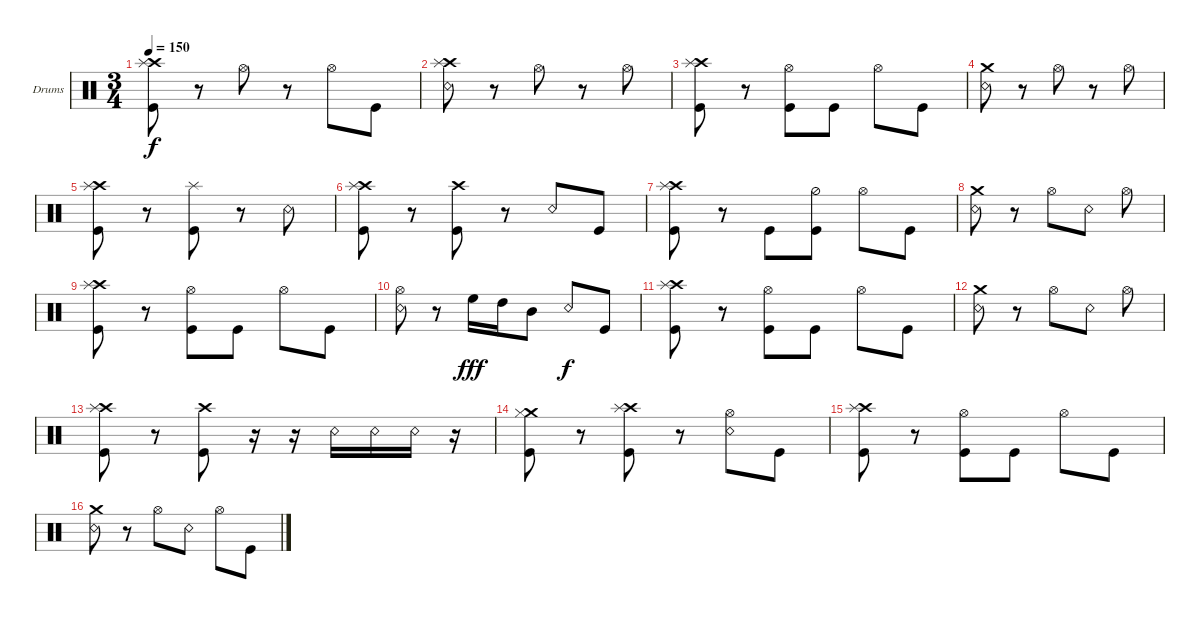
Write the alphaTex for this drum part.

\defaultSystemsLayout 4
\bracketExtendMode groupsimilarinstruments
\firstSystemTrackNameOrientation horizontal
\otherSystemsTrackNameOrientation horizontal
\track ("Scott" "Drums") {instrument percussion}
\staff {score}
\articulation defaults
\ts (3 4)
\tempo 150
\clef neutral
\scale
0.333333
\ks c
("Kick (hit)" "Crash high (hit)" "Splash (hit)").8{dy f} r.8 "Hi-Hat (open)".8 r.8 "Hi-Hat (open)".8 "Kick (hit)".8 |
\scale
0.333333 ("Snare (rim shot)" "Crash high (hit)" "Splash (hit)").8 r.8 "Hi-Hat (open)".8 r.8 "Hi-Hat (open)".8 |
\scale
0.333333 ("Kick (hit)" "Crash high (hit)" "Splash (hit)").8 r.8 ("Kick (hit)" "Hi-Hat (open)").8 "Kick (hit)".8 "Hi-Hat (open)".8 "Kick (hit)".8 |
\scale
0.333333 ("Crash medium (hit)" "Snare (rim shot)").8 r.8 "Hi-Hat (open)".8 r.8 "Hi-Hat (open)".8 |
\scale
0.333333 ("Kick (hit)" "Crash high (hit)" "Splash (hit)").8 r.8 ("Kick (hit)" "Splash (hit)").8 r.8 "Snare (rim shot)".8 |
\scale
0.333333 ("Kick (hit)" "Crash high (hit)" "Splash (hit)").8 r.8 ("Kick (hit)" "Crash high (hit)").8 r.8 "Snare (rim shot)".8 "Kick (hit)".8 |
\scale
0.333333 ("Kick (hit)" "Crash high (hit)" "Splash (hit)").8 r.8 "Kick (hit)".8 ("Hi-Hat (half)" "Kick (hit)").8 "Hi-Hat (open)".8 "Kick (hit)".8 |
\scale
0.333333 ("Crash medium (hit)" "Snare (rim shot)").8 r.8 "Hi-Hat (open)".8 "Snare (rim shot)".8 "Hi-Hat (open)".8 |
\scale
0.333333 ("Kick (hit)" "Crash high (hit)" "Splash (hit)").8 r.8 ("Kick (hit)" "Hi-Hat (open)").8 "Kick (hit)".8 "Hi-Hat (open)".8 "Kick (hit)".8 |
\scale
0.333333 ("Snare (rim shot)" "Hi-Hat (open)").8 r.8 "High Floor Tom (hit)".16{dy fff} "High Tom (hit)".16 "Mid Tom (hit)".8 "Snare (rim shot)".8{dy f} "Kick (hit)".8 |
\scale
0.333333 ("Kick (hit)" "Crash high (hit)" "Splash (hit)").8 r.8 ("Kick (hit)" "Hi-Hat (open)").8 "Kick (hit)".8 "Hi-Hat (open)".8 "Kick (hit)".8 |
\scale
0.333333 ("Crash medium (hit)" "Snare (rim shot)").8 r.8 "Hi-Hat (open)".8 "Snare (rim shot)".8 "Hi-Hat (open)".8 |
\scale
0.333333 ("Kick (hit)" "Crash high (hit)" "Splash (hit)").8 r.8 ("Kick (hit)" "Crash high (hit)").8 r.16 r.16 "Snare (rim shot)".16 "Snare (rim shot)".16 "Snare (rim shot)".16 r.16 |
\scale
0.333333 ("Kick (hit)" "Crash medium (hit)" "Hi-Hat (closed)").8 r.8 ("Crash high (hit)" "Splash (hit)" "Kick (hit)").8 r.8 ("Hi-Hat (open)" "Snare (rim shot)").8 "Kick (hit)".8 |
\scale
0.333333 ("Kick (hit)" "Crash high (hit)" "Splash (hit)").8 r.8 ("Kick (hit)" "Hi-Hat (open)").8 "Kick (hit)".8 "Hi-Hat (open)".8 "Kick (hit)".8 |
\scale
0.333333 ("Crash medium (hit)" "Snare (rim shot)").8 r.8 "Hi-Hat (open)".8 "Snare (rim shot)".8 "Hi-Hat (open)".8 "Kick (hit)".8
